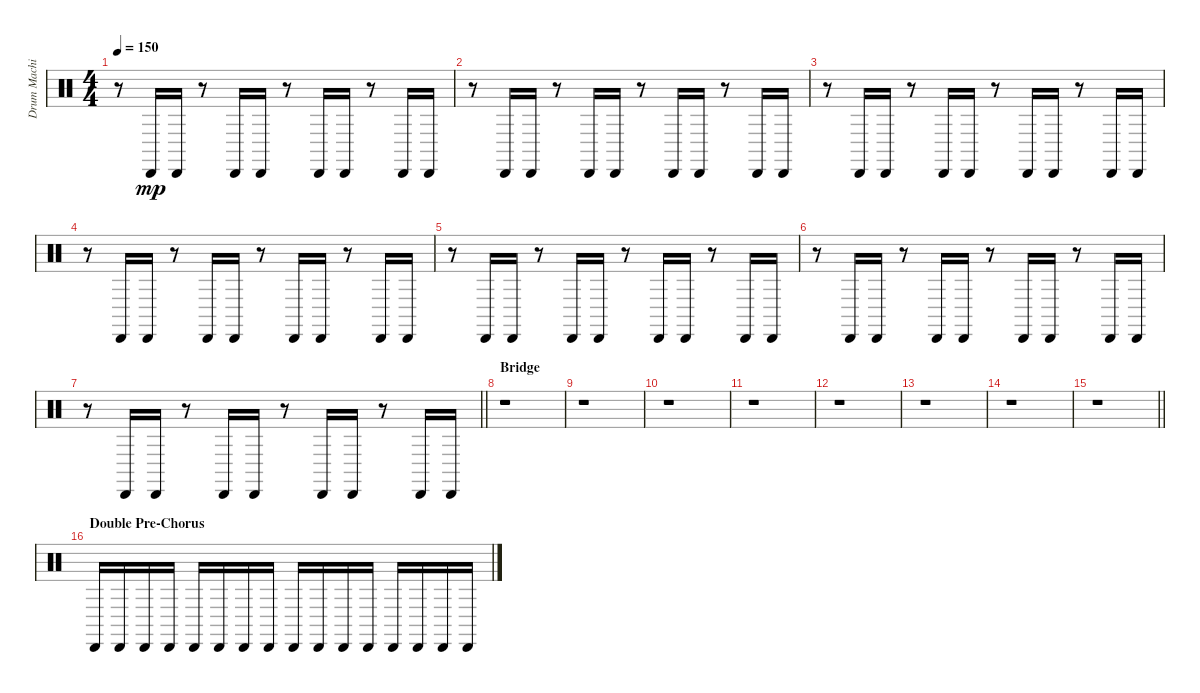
\track ("Drum Machine" "Drum Machi") {instrument percussion}
\staff {score}
\articulation defaults
\ts (4 4)
\tempo 150
\clef neutral
\ks c
r.8{dy mp} "Cabasa (hit)".16 "Cabasa (hit)".16 r.8 "Cabasa (hit)".16 "Cabasa (hit)".16 r.8 "Cabasa (hit)".16 "Cabasa (hit)".16 r.8 "Cabasa (hit)".16 "Cabasa (hit)".16 |
r.8 "Cabasa (hit)".16 "Cabasa (hit)".16 r.8 "Cabasa (hit)".16 "Cabasa (hit)".16 r.8 "Cabasa (hit)".16 "Cabasa (hit)".16 r.8 "Cabasa (hit)".16 "Cabasa (hit)".16 |
r.8 "Cabasa (hit)".16 "Cabasa (hit)".16 r.8 "Cabasa (hit)".16 "Cabasa (hit)".16 r.8 "Cabasa (hit)".16 "Cabasa (hit)".16 r.8 "Cabasa (hit)".16 "Cabasa (hit)".16 |
r.8 "Cabasa (hit)".16 "Cabasa (hit)".16 r.8 "Cabasa (hit)".16 "Cabasa (hit)".16 r.8 "Cabasa (hit)".16 "Cabasa (hit)".16 r.8 "Cabasa (hit)".16 "Cabasa (hit)".16 |
r.8 "Cabasa (hit)".16 "Cabasa (hit)".16 r.8 "Cabasa (hit)".16 "Cabasa (hit)".16 r.8 "Cabasa (hit)".16 "Cabasa (hit)".16 r.8 "Cabasa (hit)".16 "Cabasa (hit)".16 |
r.8 "Cabasa (hit)".16 "Cabasa (hit)".16 r.8 "Cabasa (hit)".16 "Cabasa (hit)".16 r.8 "Cabasa (hit)".16 "Cabasa (hit)".16 r.8 "Cabasa (hit)".16 "Cabasa (hit)".16 |
\barLineRight lightlight
r.8 "Cabasa (hit)".16 "Cabasa (hit)".16 r.8 "Cabasa (hit)".16 "Cabasa (hit)".16 r.8 "Cabasa (hit)".16 "Cabasa (hit)".16 r.8 "Cabasa (hit)".16 "Cabasa (hit)".16 |
\section ("" "Bridge")
r.1 |
r.1 |
r.1 |
r.1 |
r.1 |
r.1 |
r.1 |
\barLineRight lightlight
r.1 |
\section ("" "Double Pre-Chorus")
"Cabasa (hit)".16 "Cabasa (hit)".16 "Cabasa (hit)".16 "Cabasa (hit)".16 "Cabasa (hit)".16 "Cabasa (hit)".16 "Cabasa (hit)".16 "Cabasa (hit)".16 "Cabasa (hit)".16 "Cabasa (hit)".16 "Cabasa (hit)".16 "Cabasa (hit)".16 "Cabasa (hit)".16 "Cabasa (hit)".16 "Cabasa (hit)".16 "Cabasa (hit)".16
